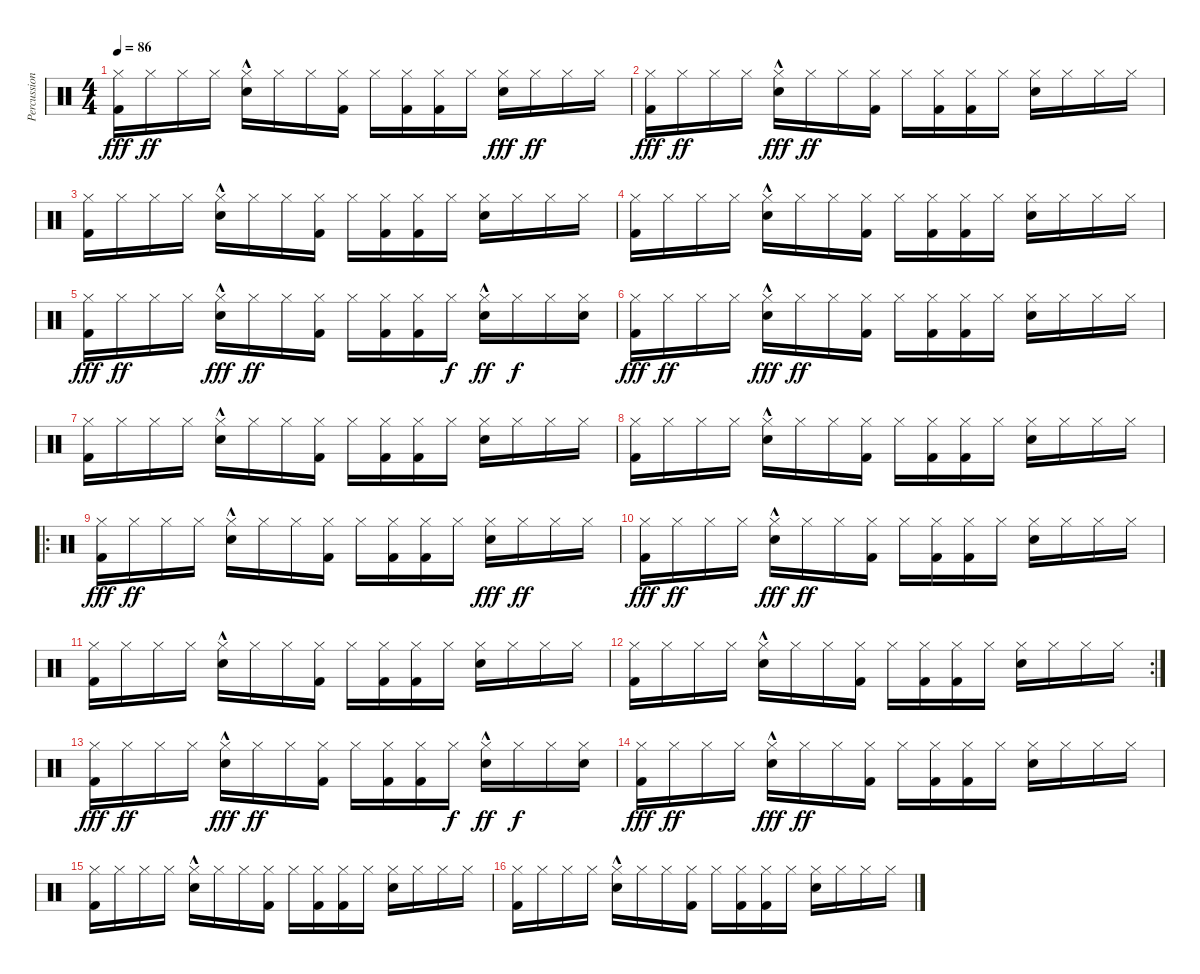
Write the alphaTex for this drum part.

\track ("Percussion" "Percussion") {instrument percussion}
\staff {score}
\articulation defaults
\ts (4 4)
\tempo 86
\clef neutral
\ks c
("Hi-Hat (closed)" "Kick (hit) 2").16{dy fff} "Hi-Hat (closed)".16{dy ff} "Hi-Hat (closed)".16 "Hi-Hat (closed)".16 ("Hi-Hat (closed)" "Snare (hit) 2"{hac}).16 "Hi-Hat (closed)".16 "Hi-Hat (closed)".16 ("Hi-Hat (closed)" "Kick (hit) 2").16 "Hi-Hat (closed)".16 ("Hi-Hat (closed)" "Kick (hit) 2").16 ("Hi-Hat (closed)" "Kick (hit) 2").16 "Hi-Hat (closed)".16 ("Hi-Hat (closed)" "Snare (hit) 2").16{dy fff} "Hi-Hat (closed)".16{dy ff} "Hi-Hat (closed)".16 "Hi-Hat (closed)".16 |
("Hi-Hat (closed)" "Kick (hit) 2").16{dy fff} "Hi-Hat (closed)".16{dy ff} "Hi-Hat (closed)".16 "Hi-Hat (closed)".16 ("Hi-Hat (closed)" "Snare (hit) 2"{hac}).16{dy fff} "Hi-Hat (closed)".16{dy ff} "Hi-Hat (closed)".16 ("Hi-Hat (closed)" "Kick (hit) 2").16 "Hi-Hat (closed)".16 ("Hi-Hat (closed)" "Kick (hit) 2").16 ("Hi-Hat (closed)" "Kick (hit) 2").16 "Hi-Hat (closed)".16 ("Hi-Hat (closed)" "Snare (hit) 2").16 "Hi-Hat (closed)".16 "Hi-Hat (closed)".16 "Hi-Hat (closed)".16 |
("Hi-Hat (closed)" "Kick (hit) 2").16 "Hi-Hat (closed)".16 "Hi-Hat (closed)".16 "Hi-Hat (closed)".16 ("Snare (hit) 2"{hac} "Hi-Hat (closed)").16 "Hi-Hat (closed)".16 "Hi-Hat (closed)".16 ("Hi-Hat (closed)" "Kick (hit) 2").16 "Hi-Hat (closed)".16 ("Kick (hit) 2" "Hi-Hat (closed)").16 ("Kick (hit) 2" "Hi-Hat (closed)").16 "Hi-Hat (closed)".16 ("Hi-Hat (closed)" "Snare (hit) 2").16 "Hi-Hat (closed)".16 "Hi-Hat (closed)".16 "Hi-Hat (closed)".16 |
("Hi-Hat (closed)" "Kick (hit) 2").16 "Hi-Hat (closed)".16 "Hi-Hat (closed)".16 "Hi-Hat (closed)".16 ("Snare (hit) 2"{hac} "Hi-Hat (closed)").16 "Hi-Hat (closed)".16 "Hi-Hat (closed)".16 ("Hi-Hat (closed)" "Kick (hit) 2").16 "Hi-Hat (closed)".16 ("Kick (hit) 2" "Hi-Hat (closed)").16 ("Kick (hit) 2" "Hi-Hat (closed)").16 "Hi-Hat (closed)".16 ("Hi-Hat (closed)" "Snare (hit) 2").16 "Hi-Hat (closed)".16 "Hi-Hat (closed)".16 "Hi-Hat (closed)".16 |
("Hi-Hat (closed)" "Kick (hit) 2").16{dy fff} "Hi-Hat (closed)".16{dy ff} "Hi-Hat (closed)".16 "Hi-Hat (closed)".16 ("Hi-Hat (closed)" "Snare (hit) 2"{hac}).16{dy fff} "Hi-Hat (closed)".16{dy ff} "Hi-Hat (closed)".16 ("Hi-Hat (closed)" "Kick (hit) 2").16 "Hi-Hat (closed)".16 ("Hi-Hat (closed)" "Kick (hit) 2").16 ("Hi-Hat (closed)" "Kick (hit) 2").16 "Hi-Hat (closed)".16{dy f} ("Hi-Hat (closed)" "Snare (hit) 2"{hac}).16{dy ff} "Hi-Hat (closed)".16{dy f} "Hi-Hat (closed)".16 ("Hi-Hat (closed)" "Snare (hit) 2").16 |
("Hi-Hat (closed)" "Kick (hit) 2").16{dy fff} "Hi-Hat (closed)".16{dy ff} "Hi-Hat (closed)".16 "Hi-Hat (closed)".16 ("Hi-Hat (closed)" "Snare (hit) 2"{hac}).16{dy fff} "Hi-Hat (closed)".16{dy ff} "Hi-Hat (closed)".16 ("Hi-Hat (closed)" "Kick (hit) 2").16 "Hi-Hat (closed)".16 ("Hi-Hat (closed)" "Kick (hit) 2").16 ("Hi-Hat (closed)" "Kick (hit) 2").16 "Hi-Hat (closed)".16 ("Hi-Hat (closed)" "Snare (hit) 2").16 "Hi-Hat (closed)".16 "Hi-Hat (closed)".16 "Hi-Hat (closed)".16 |
("Hi-Hat (closed)" "Kick (hit) 2").16 "Hi-Hat (closed)".16 "Hi-Hat (closed)".16 "Hi-Hat (closed)".16 ("Snare (hit) 2"{hac} "Hi-Hat (closed)").16 "Hi-Hat (closed)".16 "Hi-Hat (closed)".16 ("Hi-Hat (closed)" "Kick (hit) 2").16 "Hi-Hat (closed)".16 ("Kick (hit) 2" "Hi-Hat (closed)").16 ("Kick (hit) 2" "Hi-Hat (closed)").16 "Hi-Hat (closed)".16 ("Hi-Hat (closed)" "Snare (hit) 2").16 "Hi-Hat (closed)".16 "Hi-Hat (closed)".16 "Hi-Hat (closed)".16 |
("Hi-Hat (closed)" "Kick (hit) 2").16 "Hi-Hat (closed)".16 "Hi-Hat (closed)".16 "Hi-Hat (closed)".16 ("Snare (hit) 2"{hac} "Hi-Hat (closed)").16 "Hi-Hat (closed)".16 "Hi-Hat (closed)".16 ("Hi-Hat (closed)" "Kick (hit) 2").16 "Hi-Hat (closed)".16 ("Kick (hit) 2" "Hi-Hat (closed)").16 ("Kick (hit) 2" "Hi-Hat (closed)").16 "Hi-Hat (closed)".16 ("Hi-Hat (closed)" "Snare (hit) 2").16 "Hi-Hat (closed)".16 "Hi-Hat (closed)".16 "Hi-Hat (closed)".16 |
\ro
("Hi-Hat (closed)" "Kick (hit) 2").16{dy fff} "Hi-Hat (closed)".16{dy ff} "Hi-Hat (closed)".16 "Hi-Hat (closed)".16 ("Hi-Hat (closed)" "Snare (hit) 2"{hac}).16 "Hi-Hat (closed)".16 "Hi-Hat (closed)".16 ("Hi-Hat (closed)" "Kick (hit) 2").16 "Hi-Hat (closed)".16 ("Hi-Hat (closed)" "Kick (hit) 2").16 ("Hi-Hat (closed)" "Kick (hit) 2").16 "Hi-Hat (closed)".16 ("Hi-Hat (closed)" "Snare (hit) 2").16{dy fff} "Hi-Hat (closed)".16{dy ff} "Hi-Hat (closed)".16 "Hi-Hat (closed)".16 |
("Hi-Hat (closed)" "Kick (hit) 2").16{dy fff} "Hi-Hat (closed)".16{dy ff} "Hi-Hat (closed)".16 "Hi-Hat (closed)".16 ("Hi-Hat (closed)" "Snare (hit) 2"{hac}).16{dy fff} "Hi-Hat (closed)".16{dy ff} "Hi-Hat (closed)".16 ("Hi-Hat (closed)" "Kick (hit) 2").16 "Hi-Hat (closed)".16 ("Hi-Hat (closed)" "Kick (hit) 2").16 ("Hi-Hat (closed)" "Kick (hit) 2").16 "Hi-Hat (closed)".16 ("Hi-Hat (closed)" "Snare (hit) 2").16 "Hi-Hat (closed)".16 "Hi-Hat (closed)".16 "Hi-Hat (closed)".16 |
("Hi-Hat (closed)" "Kick (hit) 2").16 "Hi-Hat (closed)".16 "Hi-Hat (closed)".16 "Hi-Hat (closed)".16 ("Snare (hit) 2"{hac} "Hi-Hat (closed)").16 "Hi-Hat (closed)".16 "Hi-Hat (closed)".16 ("Hi-Hat (closed)" "Kick (hit) 2").16 "Hi-Hat (closed)".16 ("Kick (hit) 2" "Hi-Hat (closed)").16 ("Kick (hit) 2" "Hi-Hat (closed)").16 "Hi-Hat (closed)".16 ("Hi-Hat (closed)" "Snare (hit) 2").16 "Hi-Hat (closed)".16 "Hi-Hat (closed)".16 "Hi-Hat (closed)".16 |
\rc 2
("Hi-Hat (closed)" "Kick (hit) 2").16 "Hi-Hat (closed)".16 "Hi-Hat (closed)".16 "Hi-Hat (closed)".16 ("Snare (hit) 2"{hac} "Hi-Hat (closed)").16 "Hi-Hat (closed)".16 "Hi-Hat (closed)".16 ("Hi-Hat (closed)" "Kick (hit) 2").16 "Hi-Hat (closed)".16 ("Kick (hit) 2" "Hi-Hat (closed)").16 ("Kick (hit) 2" "Hi-Hat (closed)").16 "Hi-Hat (closed)".16 ("Hi-Hat (closed)" "Snare (hit) 2").16 "Hi-Hat (closed)".16 "Hi-Hat (closed)".16 "Hi-Hat (closed)".16 |
("Hi-Hat (closed)" "Kick (hit) 2").16{dy fff} "Hi-Hat (closed)".16{dy ff} "Hi-Hat (closed)".16 "Hi-Hat (closed)".16 ("Hi-Hat (closed)" "Snare (hit) 2"{hac}).16{dy fff} "Hi-Hat (closed)".16{dy ff} "Hi-Hat (closed)".16 ("Hi-Hat (closed)" "Kick (hit) 2").16 "Hi-Hat (closed)".16 ("Hi-Hat (closed)" "Kick (hit) 2").16 ("Hi-Hat (closed)" "Kick (hit) 2").16 "Hi-Hat (closed)".16{dy f} ("Hi-Hat (closed)" "Snare (hit) 2"{hac}).16{dy ff} "Hi-Hat (closed)".16{dy f} "Hi-Hat (closed)".16 ("Hi-Hat (closed)" "Snare (hit) 2").16 |
("Hi-Hat (closed)" "Kick (hit) 2").16{dy fff} "Hi-Hat (closed)".16{dy ff} "Hi-Hat (closed)".16 "Hi-Hat (closed)".16 ("Hi-Hat (closed)" "Snare (hit) 2"{hac}).16{dy fff} "Hi-Hat (closed)".16{dy ff} "Hi-Hat (closed)".16 ("Hi-Hat (closed)" "Kick (hit) 2").16 "Hi-Hat (closed)".16 ("Hi-Hat (closed)" "Kick (hit) 2").16 ("Hi-Hat (closed)" "Kick (hit) 2").16 "Hi-Hat (closed)".16 ("Hi-Hat (closed)" "Snare (hit) 2").16 "Hi-Hat (closed)".16 "Hi-Hat (closed)".16 "Hi-Hat (closed)".16 |
("Hi-Hat (closed)" "Kick (hit) 2").16 "Hi-Hat (closed)".16 "Hi-Hat (closed)".16 "Hi-Hat (closed)".16 ("Snare (hit) 2"{hac} "Hi-Hat (closed)").16 "Hi-Hat (closed)".16 "Hi-Hat (closed)".16 ("Hi-Hat (closed)" "Kick (hit) 2").16 "Hi-Hat (closed)".16 ("Kick (hit) 2" "Hi-Hat (closed)").16 ("Kick (hit) 2" "Hi-Hat (closed)").16 "Hi-Hat (closed)".16 ("Hi-Hat (closed)" "Snare (hit) 2").16 "Hi-Hat (closed)".16 "Hi-Hat (closed)".16 "Hi-Hat (closed)".16 |
("Hi-Hat (closed)" "Kick (hit) 2").16 "Hi-Hat (closed)".16 "Hi-Hat (closed)".16 "Hi-Hat (closed)".16 ("Snare (hit) 2"{hac} "Hi-Hat (closed)").16 "Hi-Hat (closed)".16 "Hi-Hat (closed)".16 ("Hi-Hat (closed)" "Kick (hit) 2").16 "Hi-Hat (closed)".16 ("Kick (hit) 2" "Hi-Hat (closed)").16 ("Kick (hit) 2" "Hi-Hat (closed)").16 "Hi-Hat (closed)".16 ("Hi-Hat (closed)" "Snare (hit) 2").16 "Hi-Hat (closed)".16 "Hi-Hat (closed)".16 "Hi-Hat (closed)".16
